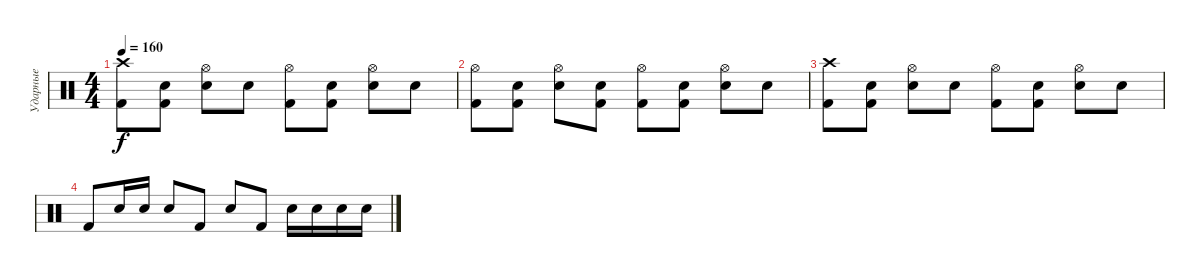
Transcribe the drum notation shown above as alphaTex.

\track ("Ударные" "Ударные") {instrument percussion}
\staff {score}
\articulation defaults
\ts (4 4)
\tempo 160
\clef neutral
\ks c
("Crash high (hit)" "Kick (hit) 2").8{dy f} ("Snare (hit)" "Kick (hit) 2").8 ("Hi-Hat (open)" "Electric Snare (hit)").8 "Snare (hit)".8 ("Hi-Hat (open)" "Kick (hit) 2").8 ("Snare (hit)" "Kick (hit) 2").8 ("Hi-Hat (open)" "Electric Snare (hit)").8 "Snare (hit)".8 |
("Hi-Hat (open)" "Kick (hit) 2").8 ("Snare (hit)" "Kick (hit) 2").8 ("Hi-Hat (open)" "Electric Snare (hit)").8 ("Snare (hit)" "Kick (hit) 2").8 ("Hi-Hat (open)" "Kick (hit) 2").8 ("Snare (hit)" "Kick (hit) 2").8 ("Hi-Hat (open)" "Electric Snare (hit)").8 "Snare (hit)".8 |
("Crash high (hit)" "Kick (hit) 2").8 ("Snare (hit)" "Kick (hit) 2").8 ("Hi-Hat (open)" "Electric Snare (hit)").8 "Snare (hit)".8 ("Hi-Hat (open)" "Kick (hit) 2").8 ("Snare (hit)" "Kick (hit) 2").8 ("Hi-Hat (open)" "Electric Snare (hit)").8 "Snare (hit)".8 |
"Kick (hit) 2".8 "Electric Snare (hit)".16 "Electric Snare (hit)".16 "Electric Snare (hit)".8 "Kick (hit) 2".8 "Electric Snare (hit)".8 "Kick (hit) 2".8 "Electric Snare (hit)".16 "Electric Snare (hit)".16 "Electric Snare (hit)".16 "Electric Snare (hit)".16
